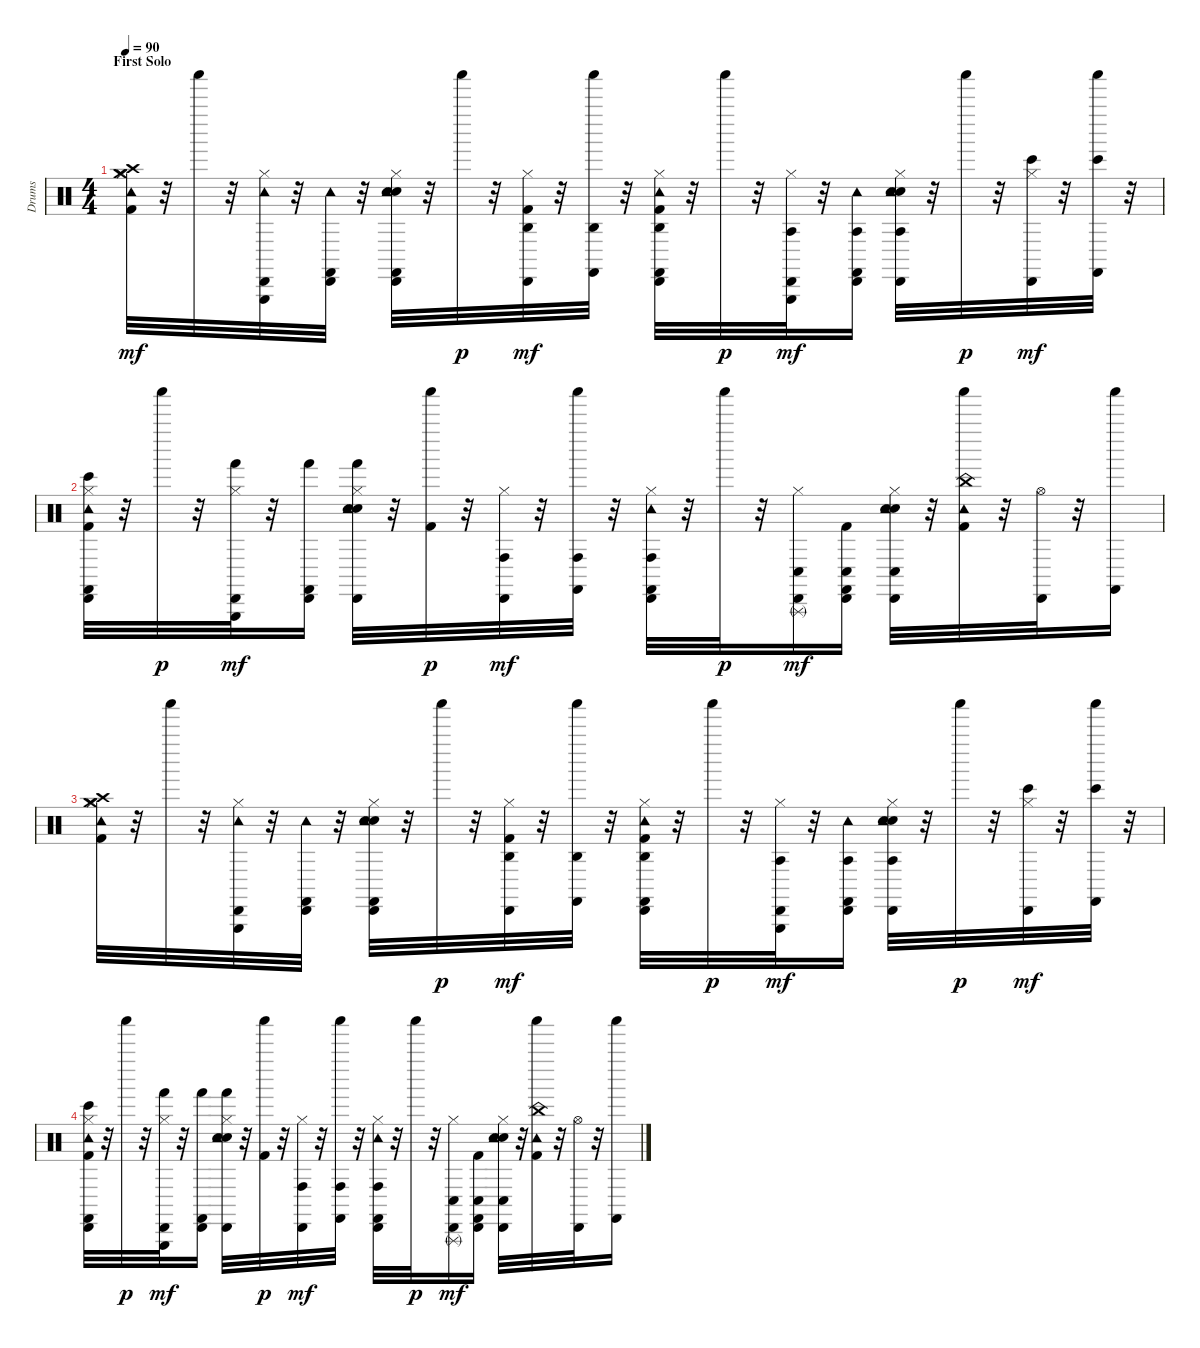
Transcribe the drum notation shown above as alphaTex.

\track ("Drums" "Drums") {instrument percussion}
\staff {score}
\articulation defaults
\ts (4 4)
\section ("" "First Solo")
\tempo 90
\clef neutral
\ks c
("Hi-Hat (closed)" "Kick (hit) 2" "Tambourine (hit)" "Crash high (hit)" "Crash medium (hit)" "Hi-Hat (closed)").32{dy mf} r.32 "Shaker (hit)".32 r.32 ("Hi-Hat (closed)" "Tambourine (hit)" "Cabasa (hit)" "Triangle (hit)").32 r.32 ("Tambourine (hit)" "Cabasa (hit)" "Castanets (hit)").32 r.32 ("Electric Snare (hit)" "Hi-Hat (closed)" "Snare (hit) 2" "Tambourine (hit)" "Cabasa (hit)" "Castanets (hit)").32 r.32 "Shaker (hit)".32{dy p} r.32 ("Hi-Hat (closed)" "Kick (hit) 2" "Agogo high (hit)" "Cabasa (hit)").32{dy mf} r.32 ("Agogo high (hit)" "Shaker (hit)" "Castanets (hit)").32 r.32 ("Hi-Hat (closed)" "Kick (hit) 2" "Agogo high (hit)" "Cabasa (hit)" "Tambourine (hit)" "Castanets (hit)").32 r.32 "Shaker (hit)".32{dy p} r.32 ("Hi-Hat (closed)" "Agogo tow (hit)" "Cabasa (hit)" "Triangle (hit)").32{dy mf} r.32 ("Agogo tow (hit)" "Cabasa (hit)" "Tambourine (hit)" "Castanets (hit)").16 ("Electric Snare (hit)" "Hi-Hat (closed)" "Snare (hit) 2" "Agogo tow (hit)" "Tambourine (hit)" "Cabasa (hit)").32 r.32 "Shaker (hit)".32{dy p} r.32 ("Hi-Hat (closed)" "Bongo High (hit)" "Cabasa (hit)").32{dy mf} r.32 ("Bongo High (hit)" "Shaker (hit)" "Castanets (hit)").32 r.32 |
("Hi-Hat (closed)" "Kick (hit) 2" "Bongo High (hit)" "Cabasa (hit)" "Tambourine (hit)" "Castanets (hit)").32 r.32 "Shaker (hit)".32{dy p} r.32 ("Hi-Hat (closed)" "Hand (hit)" "Cabasa (hit)" "Triangle (hit)").32{dy mf} r.32 ("Hand (hit)" "Cabasa (hit)" "Castanets (hit)").16 ("Electric Snare (hit)" "Hi-Hat (closed)" "Snare (hit) 2" "Hand (hit)" "Cabasa (hit)" "Tambourine (hit)").32 r.32 ("Kick (hit) 2" "Shaker (hit)").32{dy p} r.32 ("Hi-Hat (closed)" "Conga high (hit)" "Cabasa (hit)").32{dy mf} r.32 ("Conga high (hit)" "Shaker (hit)" "Castanets (hit)").32 r.32 ("Hi-Hat (closed)" "Conga high (hit)" "Cabasa (hit)" "Tambourine (hit)" "Castanets (hit)").32 r.32 "Shaker (hit)".32{dy p} r.32 ("Hi-Hat (closed)" "Conga low (hit)" "Cabasa (hit)" "Triangle (rnute)").16{dy mf} ("Kick (hit) 2" "Conga low (hit)" "Cabasa (hit)" "Castanets (hit)").16 ("Electric Snare (hit)" "Hi-Hat (closed)" "Snare (hit) 2" "Conga low (hit)" "Cabasa (hit)" "Tambourine (hit)").32 r.32 ("Kick (hit) 2" "Tambourine (hit)" "Shaker (hit)" "China (hit)").32 r.32 ("Hi-Hat (open)" "Cabasa (hit)").32 r.32 ("Shaker (hit)" "Castanets (hit)").16 |
("Hi-Hat (closed)" "Kick (hit) 2" "Tambourine (hit)" "Crash high (hit)" "Crash medium (hit)" "Hi-Hat (closed)").32 r.32 "Shaker (hit)".32 r.32 ("Hi-Hat (closed)" "Tambourine (hit)" "Cabasa (hit)" "Triangle (hit)").32 r.32 ("Tambourine (hit)" "Cabasa (hit)" "Castanets (hit)").32 r.32 ("Electric Snare (hit)" "Hi-Hat (closed)" "Snare (hit) 2" "Tambourine (hit)" "Cabasa (hit)" "Castanets (hit)").32 r.32 "Shaker (hit)".32{dy p} r.32 ("Hi-Hat (closed)" "Kick (hit) 2" "Agogo high (hit)" "Cabasa (hit)").32{dy mf} r.32 ("Agogo high (hit)" "Shaker (hit)" "Castanets (hit)").32 r.32 ("Hi-Hat (closed)" "Kick (hit) 2" "Agogo high (hit)" "Cabasa (hit)" "Tambourine (hit)" "Castanets (hit)").32 r.32 "Shaker (hit)".32{dy p} r.32 ("Hi-Hat (closed)" "Agogo tow (hit)" "Cabasa (hit)" "Triangle (hit)").32{dy mf} r.32 ("Agogo tow (hit)" "Cabasa (hit)" "Tambourine (hit)" "Castanets (hit)").16 ("Electric Snare (hit)" "Hi-Hat (closed)" "Snare (hit) 2" "Agogo tow (hit)" "Tambourine (hit)" "Cabasa (hit)").32 r.32 "Shaker (hit)".32{dy p} r.32 ("Hi-Hat (closed)" "Bongo High (hit)" "Cabasa (hit)").32{dy mf} r.32 ("Bongo High (hit)" "Shaker (hit)" "Castanets (hit)").32 r.32 |
("Hi-Hat (closed)" "Kick (hit) 2" "Bongo High (hit)" "Cabasa (hit)" "Tambourine (hit)" "Castanets (hit)").32 r.32 "Shaker (hit)".32{dy p} r.32 ("Hi-Hat (closed)" "Hand (hit)" "Cabasa (hit)" "Triangle (hit)").32{dy mf} r.32 ("Hand (hit)" "Cabasa (hit)" "Castanets (hit)").16 ("Electric Snare (hit)" "Hi-Hat (closed)" "Snare (hit) 2" "Hand (hit)" "Cabasa (hit)" "Tambourine (hit)").32 r.32 ("Kick (hit) 2" "Shaker (hit)").32{dy p} r.32 ("Hi-Hat (closed)" "Conga high (hit)" "Cabasa (hit)").32{dy mf} r.32 ("Conga high (hit)" "Shaker (hit)" "Castanets (hit)").32 r.32 ("Hi-Hat (closed)" "Conga high (hit)" "Cabasa (hit)" "Tambourine (hit)" "Castanets (hit)").32 r.32 "Shaker (hit)".32{dy p} r.32 ("Hi-Hat (closed)" "Conga low (hit)" "Cabasa (hit)" "Triangle (rnute)").16{dy mf} ("Kick (hit) 2" "Conga low (hit)" "Cabasa (hit)" "Castanets (hit)").16 ("Electric Snare (hit)" "Hi-Hat (closed)" "Snare (hit) 2" "Conga low (hit)" "Cabasa (hit)" "Tambourine (hit)").32 r.32 ("Kick (hit) 2" "Tambourine (hit)" "Shaker (hit)" "China (hit)").32 r.32 ("Hi-Hat (open)" "Cabasa (hit)").32 r.32 ("Shaker (hit)" "Castanets (hit)").16
